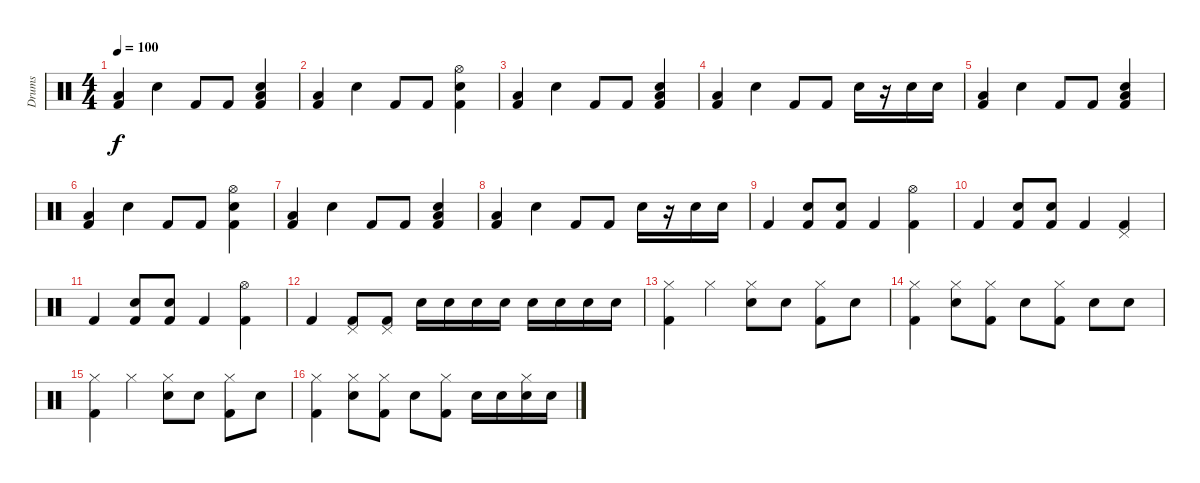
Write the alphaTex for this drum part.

\track ("Drums" "Drums") {instrument percussion}
\staff {score}
\articulation defaults
\ts (4 4)
\tempo 100
\clef neutral
\ks c
("Kick (hit) 2" "Low Tom (hit)").4{dy f} "Snare (hit) 2".4 "Kick (hit) 2".8 "Kick (hit) 2".8 ("Kick (hit) 2" "Snare (hit) 2" "Low Tom (hit)").4 |
("Kick (hit) 2" "Low Tom (hit)").4 "Snare (hit) 2".4 "Kick (hit) 2".8 "Kick (hit) 2".8 ("Kick (hit) 2" "Snare (hit) 2" "Hi-Hat (open)").4 |
("Kick (hit) 2" "Low Tom (hit)").4 "Snare (hit) 2".4 "Kick (hit) 2".8 "Kick (hit) 2".8 ("Kick (hit) 2" "Snare (hit) 2" "Low Tom (hit)").4 |
("Kick (hit) 2" "Low Tom (hit)").4 "Snare (hit) 2".4 "Kick (hit) 2".8 "Kick (hit) 2".8 "Snare (hit) 2".16 r.16 "Snare (hit) 2".16 "Snare (hit) 2".16 |
("Kick (hit) 2" "Low Tom (hit)").4 "Snare (hit) 2".4 "Kick (hit) 2".8 "Kick (hit) 2".8 ("Kick (hit) 2" "Snare (hit) 2" "Low Tom (hit)").4 |
("Kick (hit) 2" "Low Tom (hit)").4 "Snare (hit) 2".4 "Kick (hit) 2".8 "Kick (hit) 2".8 ("Kick (hit) 2" "Snare (hit) 2" "Hi-Hat (open)").4 |
("Kick (hit) 2" "Low Tom (hit)").4 "Snare (hit) 2".4 "Kick (hit) 2".8 "Kick (hit) 2".8 ("Kick (hit) 2" "Snare (hit) 2" "Low Tom (hit)").4 |
("Kick (hit) 2" "Low Tom (hit)").4 "Snare (hit) 2".4 "Kick (hit) 2".8 "Kick (hit) 2".8 "Snare (hit) 2".16 r.16 "Snare (hit) 2".16 "Snare (hit) 2".16 |
"Kick (hit) 2".4 ("Kick (hit) 2" "Snare (hit) 2").8 ("Kick (hit) 2" "Snare (hit) 2").8 "Kick (hit) 2".4 ("Kick (hit) 2" "Hi-Hat (open)").4 |
"Kick (hit) 2".4 ("Kick (hit) 2" "Snare (hit) 2").8 ("Kick (hit) 2" "Snare (hit) 2").8 "Kick (hit) 2".4 ("Kick (hit) 2" "Pedal Hi-Hat (hit)").4 |
"Kick (hit) 2".4 ("Kick (hit) 2" "Snare (hit) 2").8 ("Kick (hit) 2" "Snare (hit) 2").8 "Kick (hit) 2".4 ("Kick (hit) 2" "Hi-Hat (open)").4 |
"Kick (hit) 2".4 ("Kick (hit) 2" "Pedal Hi-Hat (hit)").8 ("Kick (hit) 2" "Pedal Hi-Hat (hit)").8 "Snare (hit) 2".16 "Snare (hit) 2".16 "Snare (hit) 2".16 "Snare (hit) 2".16 "Snare (hit) 2".16 "Snare (hit) 2".16 "Snare (hit) 2".16 "Snare (hit) 2".16 |
("Kick (hit) 2" "Hi-Hat (closed)").4 "Hi-Hat (closed)".4 ("Snare (hit) 2" "Hi-Hat (closed)").8 "Snare (hit) 2".8 ("Kick (hit) 2" "Hi-Hat (closed)").8 "Snare (hit) 2".8 |
("Kick (hit) 2" "Hi-Hat (closed)").4 ("Snare (hit) 2" "Hi-Hat (closed)").8 ("Kick (hit) 2" "Hi-Hat (closed)").8 "Snare (hit) 2".8 ("Kick (hit) 2" "Hi-Hat (closed)").8 "Snare (hit) 2".8 "Snare (hit) 2".8 |
("Kick (hit) 2" "Hi-Hat (closed)").4 "Hi-Hat (closed)".4 ("Snare (hit) 2" "Hi-Hat (closed)").8 "Snare (hit) 2".8 ("Kick (hit) 2" "Hi-Hat (closed)").8 "Snare (hit) 2".8 |
("Kick (hit) 2" "Hi-Hat (closed)").4 ("Snare (hit) 2" "Hi-Hat (closed)").8 ("Kick (hit) 2" "Hi-Hat (closed)").8 "Snare (hit) 2".8 ("Kick (hit) 2" "Hi-Hat (closed)").8 "Snare (hit) 2".16 "Snare (hit) 2".16 ("Snare (hit) 2" "Hi-Hat (closed)").16 "Snare (hit) 2".16
